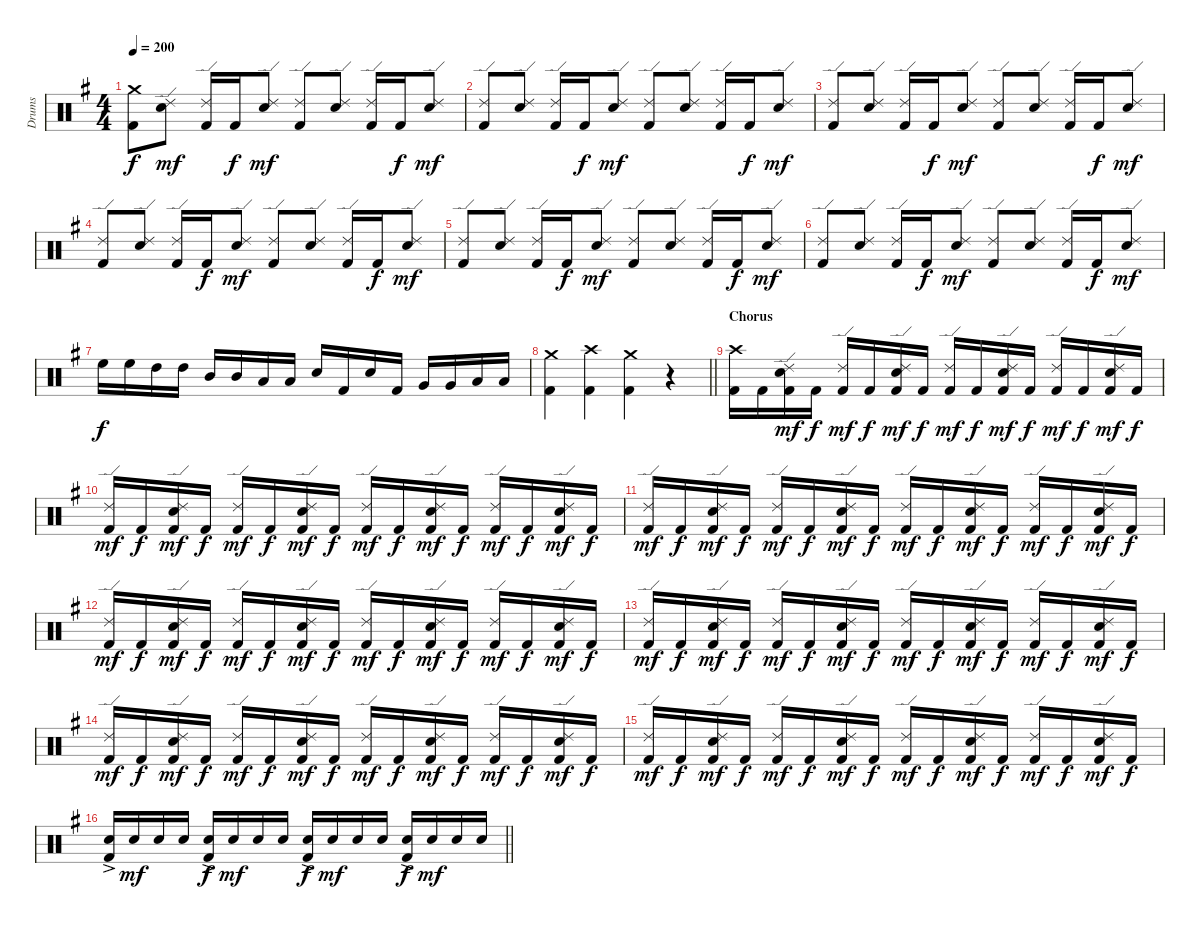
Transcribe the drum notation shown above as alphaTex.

\track ("Drums" "Drums") {instrument percussion}
\staff {score}
\articulation defaults
\ts (4 4)
\section ("" "")
\tempo 200
\clef neutral
\ks g
("Crash medium (hit)" "Kick (hit) 2").8{dy f} ("Ride (edge) 2" "Snare (hit) 2").8{dy mf} ("Ride (edge) 2" "Kick (hit) 2").16 "Kick (hit) 2".16{dy f} ("Ride (edge) 2" "Snare (hit) 2").8{dy mf} ("Ride (edge) 2" "Kick (hit) 2").8 ("Ride (edge) 2" "Snare (hit) 2").8 ("Ride (edge) 2" "Kick (hit) 2").16 "Kick (hit) 2".16{dy f} ("Ride (edge) 2" "Snare (hit) 2").8{dy mf} |
("Ride (edge) 2" "Kick (hit) 2").8 ("Ride (edge) 2" "Snare (hit) 2").8 ("Ride (edge) 2" "Kick (hit) 2").16 "Kick (hit) 2".16{dy f} ("Ride (edge) 2" "Snare (hit) 2").8{dy mf} ("Ride (edge) 2" "Kick (hit) 2").8 ("Ride (edge) 2" "Snare (hit) 2").8 ("Ride (edge) 2" "Kick (hit) 2").16 "Kick (hit) 2".16{dy f} ("Ride (edge) 2" "Snare (hit) 2").8{dy mf} |
("Ride (edge) 2" "Kick (hit) 2").8 ("Ride (edge) 2" "Snare (hit) 2").8 ("Ride (edge) 2" "Kick (hit) 2").16 "Kick (hit) 2".16{dy f} ("Ride (edge) 2" "Snare (hit) 2").8{dy mf} ("Ride (edge) 2" "Kick (hit) 2").8 ("Ride (edge) 2" "Snare (hit) 2").8 ("Ride (edge) 2" "Kick (hit) 2").16 "Kick (hit) 2".16{dy f} ("Ride (edge) 2" "Snare (hit) 2").8{dy mf} |
("Ride (edge) 2" "Kick (hit) 2").8 ("Ride (edge) 2" "Snare (hit) 2").8 ("Ride (edge) 2" "Kick (hit) 2").16 "Kick (hit) 2".16{dy f} ("Ride (edge) 2" "Snare (hit) 2").8{dy mf} ("Ride (edge) 2" "Kick (hit) 2").8 ("Ride (edge) 2" "Snare (hit) 2").8 ("Ride (edge) 2" "Kick (hit) 2").16 "Kick (hit) 2".16{dy f} ("Ride (edge) 2" "Snare (hit) 2").8{dy mf} |
("Ride (edge) 2" "Kick (hit) 2").8 ("Ride (edge) 2" "Snare (hit) 2").8 ("Ride (edge) 2" "Kick (hit) 2").16 "Kick (hit) 2".16{dy f} ("Ride (edge) 2" "Snare (hit) 2").8{dy mf} ("Ride (edge) 2" "Kick (hit) 2").8 ("Ride (edge) 2" "Snare (hit) 2").8 ("Ride (edge) 2" "Kick (hit) 2").16 "Kick (hit) 2".16{dy f} ("Ride (edge) 2" "Snare (hit) 2").8{dy mf} |
("Ride (edge) 2" "Kick (hit) 2").8 ("Ride (edge) 2" "Snare (hit) 2").8 ("Ride (edge) 2" "Kick (hit) 2").16 "Kick (hit) 2".16{dy f} ("Ride (edge) 2" "Snare (hit) 2").8{dy mf} ("Ride (edge) 2" "Kick (hit) 2").8 ("Ride (edge) 2" "Snare (hit) 2").8 ("Ride (edge) 2" "Kick (hit) 2").16 "Kick (hit) 2".16{dy f} ("Ride (edge) 2" "Snare (hit) 2").8{dy mf} |
"High Floor Tom (hit)".16{dy f} "High Floor Tom (hit)".16 "High Tom (hit)".16 "High Tom (hit)".16 "Mid Tom (hit)".16 "Mid Tom (hit)".16 "Low Tom (hit)".16 "Low Tom (hit)".16 "Snare (hit) 2".16 "Kick (hit) 2".16 "Snare (hit) 2".16 "Kick (hit) 2".16 "Very Low Tom (hit)".16 "Very Low Tom (hit)".16 "Low Floor Tom (hit)".16 "Low Floor Tom (hit)".16 |
\barLineRight lightlight
("Crash medium (hit)" "Kick (hit) 2").4 ("Crash high (hit)" "Kick (hit) 2").4 ("Crash medium (hit)" "Kick (hit) 2").4 r.4 |
\section ("" "Chorus")
("Crash high (hit)" "Kick (hit) 2").16 "Kick (hit) 2".16 ("Ride (edge) 2" "Snare (hit) 2" "Kick (hit) 2").16{dy mf} "Kick (hit) 2".16{dy f} ("Ride (edge) 2" "Kick (hit) 2").16{dy mf} "Kick (hit) 2".16{dy f} ("Ride (edge) 2" "Snare (hit) 2" "Kick (hit) 2").16{dy mf} "Kick (hit) 2".16{dy f} ("Ride (edge) 2" "Kick (hit) 2").16{dy mf} "Kick (hit) 2".16{dy f} ("Ride (edge) 2" "Snare (hit) 2" "Kick (hit) 2").16{dy mf} "Kick (hit) 2".16{dy f} ("Ride (edge) 2" "Kick (hit) 2").16{dy mf} "Kick (hit) 2".16{dy f} ("Ride (edge) 2" "Snare (hit) 2" "Kick (hit) 2").16{dy mf} "Kick (hit) 2".16{dy f} |
("Ride (edge) 2" "Kick (hit) 2").16{dy mf} "Kick (hit) 2".16{dy f} ("Ride (edge) 2" "Snare (hit) 2" "Kick (hit) 2").16{dy mf} "Kick (hit) 2".16{dy f} ("Ride (edge) 2" "Kick (hit) 2").16{dy mf} "Kick (hit) 2".16{dy f} ("Ride (edge) 2" "Snare (hit) 2" "Kick (hit) 2").16{dy mf} "Kick (hit) 2".16{dy f} ("Ride (edge) 2" "Kick (hit) 2").16{dy mf} "Kick (hit) 2".16{dy f} ("Ride (edge) 2" "Snare (hit) 2" "Kick (hit) 2").16{dy mf} "Kick (hit) 2".16{dy f} ("Ride (edge) 2" "Kick (hit) 2").16{dy mf} "Kick (hit) 2".16{dy f} ("Ride (edge) 2" "Snare (hit) 2" "Kick (hit) 2").16{dy mf} "Kick (hit) 2".16{dy f} |
("Ride (edge) 2" "Kick (hit) 2").16{dy mf} "Kick (hit) 2".16{dy f} ("Ride (edge) 2" "Snare (hit) 2" "Kick (hit) 2").16{dy mf} "Kick (hit) 2".16{dy f} ("Ride (edge) 2" "Kick (hit) 2").16{dy mf} "Kick (hit) 2".16{dy f} ("Ride (edge) 2" "Snare (hit) 2" "Kick (hit) 2").16{dy mf} "Kick (hit) 2".16{dy f} ("Ride (edge) 2" "Kick (hit) 2").16{dy mf} "Kick (hit) 2".16{dy f} ("Ride (edge) 2" "Snare (hit) 2" "Kick (hit) 2").16{dy mf} "Kick (hit) 2".16{dy f} ("Ride (edge) 2" "Kick (hit) 2").16{dy mf} "Kick (hit) 2".16{dy f} ("Ride (edge) 2" "Snare (hit) 2" "Kick (hit) 2").16{dy mf} "Kick (hit) 2".16{dy f} |
("Ride (edge) 2" "Kick (hit) 2").16{dy mf} "Kick (hit) 2".16{dy f} ("Ride (edge) 2" "Snare (hit) 2" "Kick (hit) 2").16{dy mf} "Kick (hit) 2".16{dy f} ("Ride (edge) 2" "Kick (hit) 2").16{dy mf} "Kick (hit) 2".16{dy f} ("Ride (edge) 2" "Snare (hit) 2" "Kick (hit) 2").16{dy mf} "Kick (hit) 2".16{dy f} ("Ride (edge) 2" "Kick (hit) 2").16{dy mf} "Kick (hit) 2".16{dy f} ("Ride (edge) 2" "Snare (hit) 2" "Kick (hit) 2").16{dy mf} "Kick (hit) 2".16{dy f} ("Ride (edge) 2" "Kick (hit) 2").16{dy mf} "Kick (hit) 2".16{dy f} ("Ride (edge) 2" "Snare (hit) 2" "Kick (hit) 2").16{dy mf} "Kick (hit) 2".16{dy f} |
("Ride (edge) 2" "Kick (hit) 2").16{dy mf} "Kick (hit) 2".16{dy f} ("Ride (edge) 2" "Snare (hit) 2" "Kick (hit) 2").16{dy mf} "Kick (hit) 2".16{dy f} ("Ride (edge) 2" "Kick (hit) 2").16{dy mf} "Kick (hit) 2".16{dy f} ("Ride (edge) 2" "Snare (hit) 2" "Kick (hit) 2").16{dy mf} "Kick (hit) 2".16{dy f} ("Ride (edge) 2" "Kick (hit) 2").16{dy mf} "Kick (hit) 2".16{dy f} ("Ride (edge) 2" "Snare (hit) 2" "Kick (hit) 2").16{dy mf} "Kick (hit) 2".16{dy f} ("Ride (edge) 2" "Kick (hit) 2").16{dy mf} "Kick (hit) 2".16{dy f} ("Ride (edge) 2" "Snare (hit) 2" "Kick (hit) 2").16{dy mf} "Kick (hit) 2".16{dy f} |
("Ride (edge) 2" "Kick (hit) 2").16{dy mf} "Kick (hit) 2".16{dy f} ("Ride (edge) 2" "Snare (hit) 2" "Kick (hit) 2").16{dy mf} "Kick (hit) 2".16{dy f} ("Ride (edge) 2" "Kick (hit) 2").16{dy mf} "Kick (hit) 2".16{dy f} ("Ride (edge) 2" "Snare (hit) 2" "Kick (hit) 2").16{dy mf} "Kick (hit) 2".16{dy f} ("Ride (edge) 2" "Kick (hit) 2").16{dy mf} "Kick (hit) 2".16{dy f} ("Ride (edge) 2" "Snare (hit) 2" "Kick (hit) 2").16{dy mf} "Kick (hit) 2".16{dy f} ("Ride (edge) 2" "Kick (hit) 2").16{dy mf} "Kick (hit) 2".16{dy f} ("Ride (edge) 2" "Snare (hit) 2" "Kick (hit) 2").16{dy mf} "Kick (hit) 2".16{dy f} |
("Ride (edge) 2" "Kick (hit) 2").16{dy mf} "Kick (hit) 2".16{dy f} ("Ride (edge) 2" "Snare (hit) 2" "Kick (hit) 2").16{dy mf} "Kick (hit) 2".16{dy f} ("Ride (edge) 2" "Kick (hit) 2").16{dy mf} "Kick (hit) 2".16{dy f} ("Ride (edge) 2" "Snare (hit) 2" "Kick (hit) 2").16{dy mf} "Kick (hit) 2".16{dy f} ("Ride (edge) 2" "Kick (hit) 2").16{dy mf} "Kick (hit) 2".16{dy f} ("Ride (edge) 2" "Snare (hit) 2" "Kick (hit) 2").16{dy mf} "Kick (hit) 2".16{dy f} ("Ride (edge) 2" "Kick (hit) 2").16{dy mf} "Kick (hit) 2".16{dy f} ("Ride (edge) 2" "Snare (hit) 2" "Kick (hit) 2").16{dy mf} "Kick (hit) 2".16{dy f} |
\barLineRight lightlight
("Snare (hit) 2"{ac} "Kick (hit) 2").16 "Snare (hit) 2".16{dy mf} "Snare (hit) 2".16 "Snare (hit) 2".16 ("Snare (hit) 2"{ac} "Kick (hit) 2").16{dy f} "Snare (hit) 2".16{dy mf} "Snare (hit) 2".16 "Snare (hit) 2".16 ("Snare (hit) 2"{ac} "Kick (hit) 2").16{dy f} "Snare (hit) 2".16{dy mf} "Snare (hit) 2".16 "Snare (hit) 2".16 ("Snare (hit) 2"{ac} "Kick (hit) 2").16{dy f} "Snare (hit) 2".16{dy mf} "Snare (hit) 2".16 "Snare (hit) 2".16
